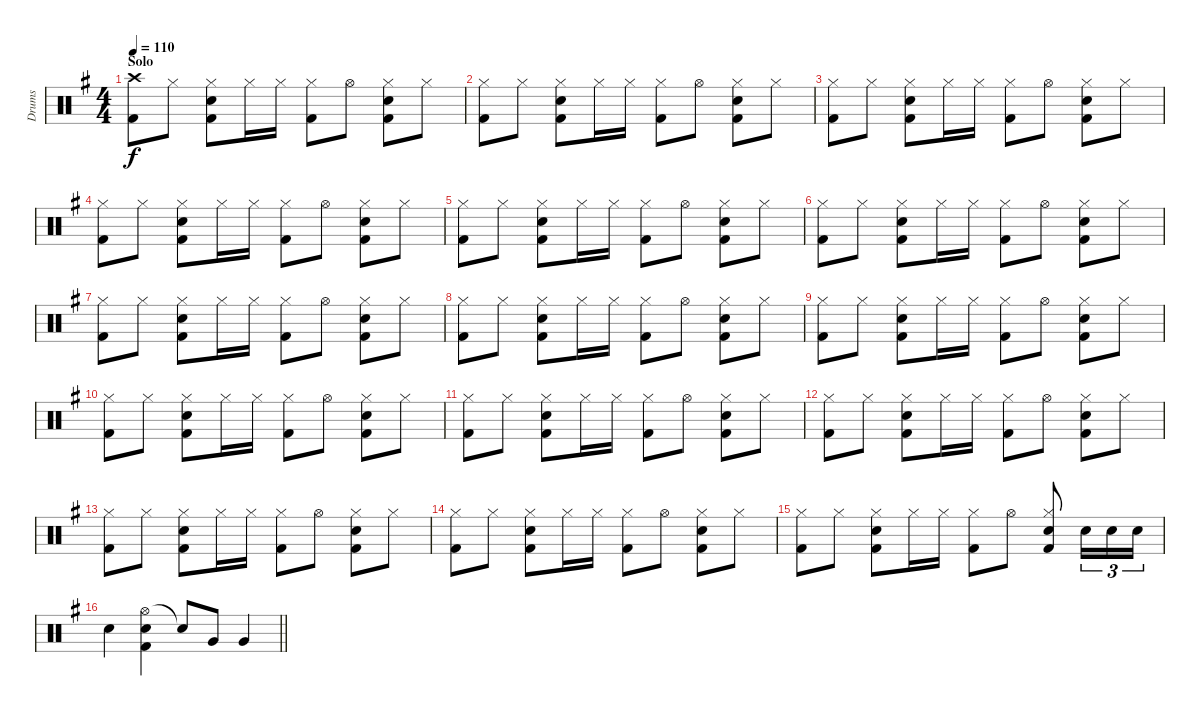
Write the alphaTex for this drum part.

\track ("Drums" "Drums") {instrument percussion}
\staff {score}
\articulation defaults
\ts (4 4)
\section ("" "Solo")
\tempo 110
\clef neutral
\ks eminor
("Crash high (hit)" "Kick (hit) 2").8{dy f} "Hi-Hat (closed)".8 ("Hi-Hat (closed)" "Snare (hit) 2" "Kick (hit) 2").8 "Hi-Hat (closed)".16 "Hi-Hat (closed)".16 ("Hi-Hat (closed)" "Kick (hit) 2").8 "Hi-Hat (open)".8 ("Hi-Hat (closed)" "Snare (hit) 2" "Kick (hit) 2").8 "Hi-Hat (closed)".8 |
("Hi-Hat (closed)" "Kick (hit) 2").8 "Hi-Hat (closed)".8 ("Hi-Hat (closed)" "Snare (hit) 2" "Kick (hit) 2").8 "Hi-Hat (closed)".16 "Hi-Hat (closed)".16 ("Hi-Hat (closed)" "Kick (hit) 2").8 "Hi-Hat (open)".8 ("Hi-Hat (closed)" "Snare (hit) 2" "Kick (hit) 2").8 "Hi-Hat (closed)".8 |
("Hi-Hat (closed)" "Kick (hit) 2").8 "Hi-Hat (closed)".8 ("Hi-Hat (closed)" "Snare (hit) 2" "Kick (hit) 2").8 "Hi-Hat (closed)".16 "Hi-Hat (closed)".16 ("Hi-Hat (closed)" "Kick (hit) 2").8 "Hi-Hat (open)".8 ("Hi-Hat (closed)" "Snare (hit) 2" "Kick (hit) 2").8 "Hi-Hat (closed)".8 |
("Hi-Hat (closed)" "Kick (hit) 2").8 "Hi-Hat (closed)".8 ("Hi-Hat (closed)" "Snare (hit) 2" "Kick (hit) 2").8 "Hi-Hat (closed)".16 "Hi-Hat (closed)".16 ("Hi-Hat (closed)" "Kick (hit) 2").8 "Hi-Hat (open)".8 ("Hi-Hat (closed)" "Snare (hit) 2" "Kick (hit) 2").8 "Hi-Hat (closed)".8 |
("Hi-Hat (closed)" "Kick (hit) 2").8 "Hi-Hat (closed)".8 ("Hi-Hat (closed)" "Snare (hit) 2" "Kick (hit) 2").8 "Hi-Hat (closed)".16 "Hi-Hat (closed)".16 ("Hi-Hat (closed)" "Kick (hit) 2").8 "Hi-Hat (open)".8 ("Hi-Hat (closed)" "Snare (hit) 2" "Kick (hit) 2").8 "Hi-Hat (closed)".8 |
("Hi-Hat (closed)" "Kick (hit) 2").8 "Hi-Hat (closed)".8 ("Hi-Hat (closed)" "Snare (hit) 2" "Kick (hit) 2").8 "Hi-Hat (closed)".16 "Hi-Hat (closed)".16 ("Hi-Hat (closed)" "Kick (hit) 2").8 "Hi-Hat (open)".8 ("Hi-Hat (closed)" "Snare (hit) 2" "Kick (hit) 2").8 "Hi-Hat (closed)".8 |
("Hi-Hat (closed)" "Kick (hit) 2").8 "Hi-Hat (closed)".8 ("Hi-Hat (closed)" "Snare (hit) 2" "Kick (hit) 2").8 "Hi-Hat (closed)".16 "Hi-Hat (closed)".16 ("Hi-Hat (closed)" "Kick (hit) 2").8 "Hi-Hat (open)".8 ("Hi-Hat (closed)" "Snare (hit) 2" "Kick (hit) 2").8 "Hi-Hat (closed)".8 |
("Hi-Hat (closed)" "Kick (hit) 2").8 "Hi-Hat (closed)".8 ("Hi-Hat (closed)" "Snare (hit) 2" "Kick (hit) 2").8 "Hi-Hat (closed)".16 "Hi-Hat (closed)".16 ("Hi-Hat (closed)" "Kick (hit) 2").8 "Hi-Hat (open)".8 ("Hi-Hat (closed)" "Snare (hit) 2" "Kick (hit) 2").8 "Hi-Hat (closed)".8 |
("Hi-Hat (closed)" "Kick (hit) 2").8 "Hi-Hat (closed)".8 ("Hi-Hat (closed)" "Snare (hit) 2" "Kick (hit) 2").8 "Hi-Hat (closed)".16 "Hi-Hat (closed)".16 ("Hi-Hat (closed)" "Kick (hit) 2").8 "Hi-Hat (open)".8 ("Hi-Hat (closed)" "Snare (hit) 2" "Kick (hit) 2").8 "Hi-Hat (closed)".8 |
("Hi-Hat (closed)" "Kick (hit) 2").8 "Hi-Hat (closed)".8 ("Hi-Hat (closed)" "Snare (hit) 2" "Kick (hit) 2").8 "Hi-Hat (closed)".16 "Hi-Hat (closed)".16 ("Hi-Hat (closed)" "Kick (hit) 2").8 "Hi-Hat (open)".8 ("Hi-Hat (closed)" "Snare (hit) 2" "Kick (hit) 2").8 "Hi-Hat (closed)".8 |
("Hi-Hat (closed)" "Kick (hit) 2").8 "Hi-Hat (closed)".8 ("Hi-Hat (closed)" "Snare (hit) 2" "Kick (hit) 2").8 "Hi-Hat (closed)".16 "Hi-Hat (closed)".16 ("Hi-Hat (closed)" "Kick (hit) 2").8 "Hi-Hat (open)".8 ("Hi-Hat (closed)" "Snare (hit) 2" "Kick (hit) 2").8 "Hi-Hat (closed)".8 |
("Hi-Hat (closed)" "Kick (hit) 2").8 "Hi-Hat (closed)".8 ("Hi-Hat (closed)" "Snare (hit) 2" "Kick (hit) 2").8 "Hi-Hat (closed)".16 "Hi-Hat (closed)".16 ("Hi-Hat (closed)" "Kick (hit) 2").8 "Hi-Hat (open)".8 ("Hi-Hat (closed)" "Snare (hit) 2" "Kick (hit) 2").8 "Hi-Hat (closed)".8 |
("Hi-Hat (closed)" "Kick (hit) 2").8 "Hi-Hat (closed)".8 ("Hi-Hat (closed)" "Snare (hit) 2" "Kick (hit) 2").8 "Hi-Hat (closed)".16 "Hi-Hat (closed)".16 ("Hi-Hat (closed)" "Kick (hit) 2").8 "Hi-Hat (open)".8 ("Hi-Hat (closed)" "Snare (hit) 2" "Kick (hit) 2").8 "Hi-Hat (closed)".8 |
("Hi-Hat (closed)" "Kick (hit) 2").8 "Hi-Hat (closed)".8 ("Hi-Hat (closed)" "Snare (hit) 2" "Kick (hit) 2").8 "Hi-Hat (closed)".16 "Hi-Hat (closed)".16 ("Hi-Hat (closed)" "Kick (hit) 2").8 "Hi-Hat (open)".8 ("Hi-Hat (closed)" "Snare (hit) 2" "Kick (hit) 2").8 "Hi-Hat (closed)".8 |
("Hi-Hat (closed)" "Kick (hit) 2").8 "Hi-Hat (closed)".8 ("Hi-Hat (closed)" "Snare (hit) 2" "Kick (hit) 2").8 "Hi-Hat (closed)".16 "Hi-Hat (closed)".16 ("Hi-Hat (closed)" "Kick (hit) 2").8 "Hi-Hat (open)".8 ("Hi-Hat (closed)" "Snare (hit) 2" "Kick (hit) 2").8 "Snare (hit) 2".16{tu (3 2)} "Snare (hit) 2".16{tu (3 2)} "Snare (hit) 2".16{tu (3 2)} |
\barLineRight lightlight "Snare (hit) 2".4
("Hi-Hat (open)" "Snare (hit) 2" "Kick (hit) 2").4 "Snare (hit)"{t}.8 "Very Low Tom (hit)".8 "Very Low Tom (hit)".4
